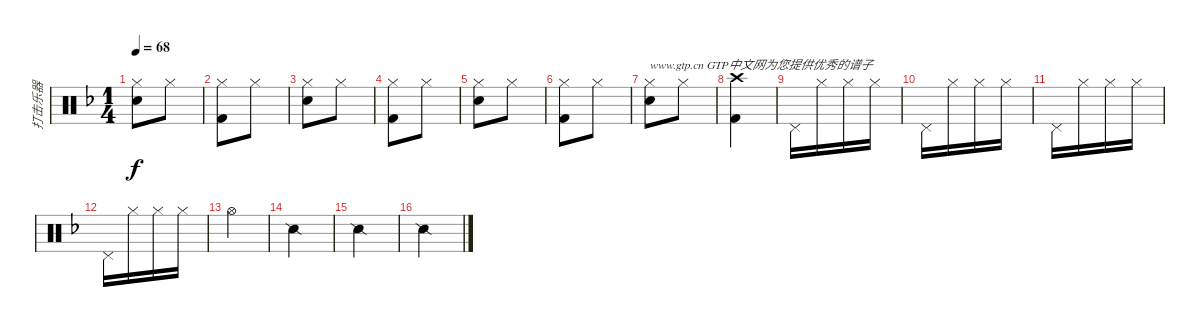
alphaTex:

\track ("打击乐器" "打击乐器") {instrument percussion}
\staff {score}
\articulation defaults
\ts (1 4)
\tempo 68
\clef neutral
\ks f
("Hi-Hat (closed)" "Snare (hit) 2").8{dy f} "Hi-Hat (closed)".8 |
("Hi-Hat (closed)" "Kick (hit) 2").8 "Hi-Hat (closed)".8 |
("Hi-Hat (closed)" "Snare (hit) 2").8 "Hi-Hat (closed)".8 |
("Hi-Hat (closed)" "Kick (hit) 2").8 "Hi-Hat (closed)".8 |
("Hi-Hat (closed)" "Snare (hit) 2").8 "Hi-Hat (closed)".8 |
("Hi-Hat (closed)" "Kick (hit) 2").8 "Hi-Hat (closed)".8 |
("Hi-Hat (closed)" "Snare (hit) 2").8{txt "www.gtp.cn GTP中文网为您提供优秀的谱子"} "Hi-Hat (closed)".8 |
("Crash high (hit)" "Kick (hit) 2").4 |
"Pedal Hi-Hat (hit)".16 "Hi-Hat (closed)".16 "Hi-Hat (closed)".16 "Hi-Hat (closed)".16 |
"Pedal Hi-Hat (hit)".16 "Hi-Hat (closed)".16 "Hi-Hat (closed)".16 "Hi-Hat (closed)".16 |
"Pedal Hi-Hat (hit)".16 "Hi-Hat (closed)".16 "Hi-Hat (closed)".16 "Hi-Hat (closed)".16 |
"Pedal Hi-Hat (hit)".16 "Hi-Hat (closed)".16 "Hi-Hat (closed)".16 "Hi-Hat (closed)".16 |
"Hi-Hat (open)".4 |
"Snare (side stick) 2".4 |
"Snare (side stick) 2".4 |
"Snare (side stick) 2".4
